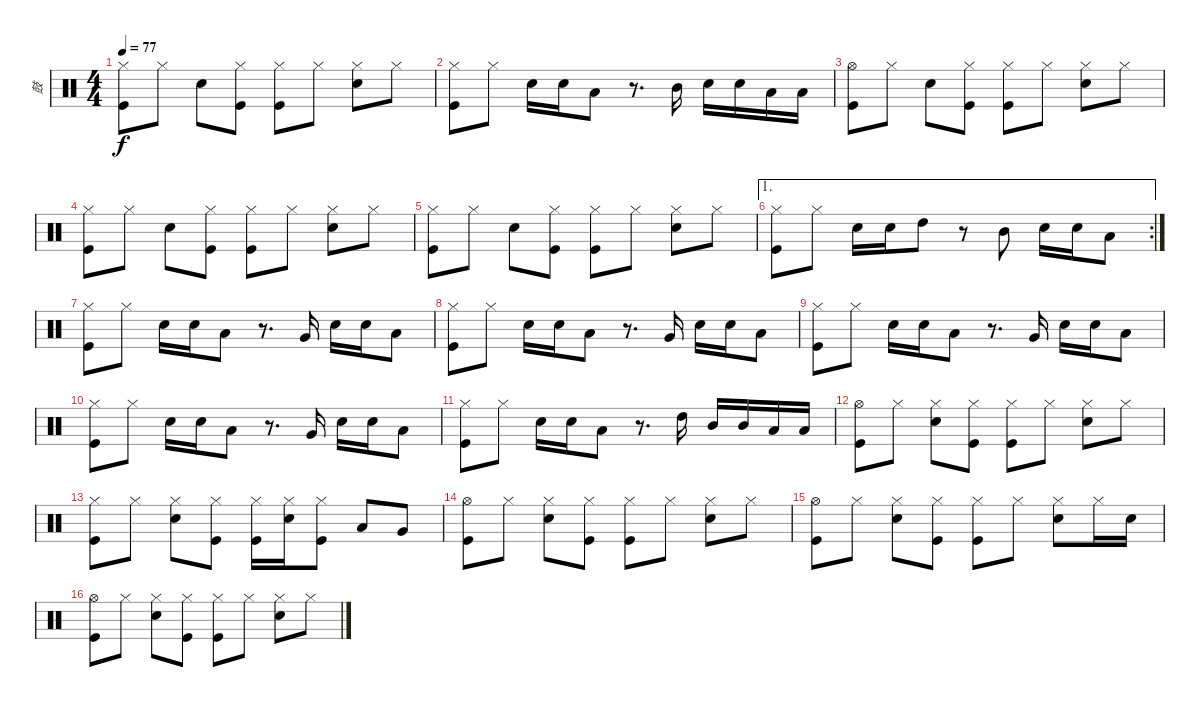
\track ("鼓" "鼓") {instrument percussion}
\staff {score}
\articulation defaults
\ts (4 4)
\tempo 77
\clef neutral
\ks c
("Kick (hit)" "Hi-Hat (closed)").8{dy f} "Hi-Hat (closed)".8 "Snare (hit) 2".8 ("Hi-Hat (closed)" "Kick (hit)").8 ("Hi-Hat (closed)" "Kick (hit)").8 "Hi-Hat (closed)".8 ("Hi-Hat (closed)" "Snare (hit) 2").8 "Hi-Hat (closed)".8 |
("Kick (hit)" "Hi-Hat (closed)").8 "Hi-Hat (closed)".8 "Snare (hit) 2".16 "Snare (hit) 2".16 "Low Tom (hit)".8 r.8{d} "Mid Tom (hit)".16 "Snare (hit) 2".16 "Snare (hit) 2".16 "Low Tom (hit)".16 "Low Tom (hit)".16 |
("Hi-Hat (open)" "Kick (hit)").8 "Hi-Hat (closed)".8 "Snare (hit) 2".8 ("Hi-Hat (closed)" "Kick (hit)").8 ("Hi-Hat (closed)" "Kick (hit)").8 "Hi-Hat (closed)".8 ("Hi-Hat (closed)" "Snare (hit) 2").8 "Hi-Hat (closed)".8 |
("Kick (hit)" "Hi-Hat (closed)").8 "Hi-Hat (closed)".8 "Snare (hit) 2".8 ("Hi-Hat (closed)" "Kick (hit)").8 ("Hi-Hat (closed)" "Kick (hit)").8 "Hi-Hat (closed)".8 ("Hi-Hat (closed)" "Snare (hit) 2").8 "Hi-Hat (closed)".8 |
("Kick (hit)" "Hi-Hat (closed)").8 "Hi-Hat (closed)".8 "Snare (hit) 2".8 ("Hi-Hat (closed)" "Kick (hit)").8 ("Hi-Hat (closed)" "Kick (hit)").8 "Hi-Hat (closed)".8 ("Hi-Hat (closed)" "Snare (hit) 2").8 "Hi-Hat (closed)".8 |
\ae 1
\rc 2
("Kick (hit)" "Hi-Hat (closed)").8 "Hi-Hat (closed)".8 "Snare (hit) 2".16 "Snare (hit) 2".16 "High Tom (hit)".8 r.8 "Mid Tom (hit)".8 "Snare (hit) 2".16 "Snare (hit) 2".16 "Low Tom (hit)".8 |
("Hi-Hat (closed)" "Kick (hit)").8 "Hi-Hat (closed)".8 "Snare (hit) 2".16 "Snare (hit) 2".16 "Low Tom (hit)".8 r.8{d} "Very Low Tom (hit)".16 "Snare (hit) 2".16 "Snare (hit) 2".16 "Low Tom (hit)".8 |
("Hi-Hat (closed)" "Kick (hit)").8 "Hi-Hat (closed)".8 "Snare (hit) 2".16 "Snare (hit) 2".16 "Low Tom (hit)".8 r.8{d} "Very Low Tom (hit)".16 "Snare (hit) 2".16 "Snare (hit) 2".16 "Low Tom (hit)".8 |
("Hi-Hat (closed)" "Kick (hit)").8 "Hi-Hat (closed)".8 "Snare (hit) 2".16 "Snare (hit) 2".16 "Low Tom (hit)".8 r.8{d} "Very Low Tom (hit)".16 "Snare (hit) 2".16 "Snare (hit) 2".16 "Low Tom (hit)".8 |
("Hi-Hat (closed)" "Kick (hit)").8 "Hi-Hat (closed)".8 "Snare (hit) 2".16 "Snare (hit) 2".16 "Low Tom (hit)".8 r.8{d} "Very Low Tom (hit)".16 "Snare (hit) 2".16 "Snare (hit) 2".16 "Low Tom (hit)".8 |
("Hi-Hat (closed)" "Kick (hit)").8 "Hi-Hat (closed)".8 "Snare (hit) 2".16 "Snare (hit) 2".16 "Low Tom (hit)".8 r.8{d} "High Tom (hit)".16 "Mid Tom (hit)".16 "Mid Tom (hit)".16 "Low Tom (hit)".16 "Low Tom (hit)".16 |
("Hi-Hat (open)" "Kick (hit)").8 "Hi-Hat (closed)".8 ("Hi-Hat (closed)" "Snare (hit) 2").8 ("Hi-Hat (closed)" "Kick (hit)").8 ("Hi-Hat (closed)" "Kick (hit)").8 "Hi-Hat (closed)".8 ("Hi-Hat (closed)" "Snare (hit) 2").8 "Hi-Hat (closed)".8 |
("Hi-Hat (closed)" "Kick (hit)").8 "Hi-Hat (closed)".8 ("Hi-Hat (closed)" "Snare (hit) 2").8 ("Hi-Hat (closed)" "Kick (hit)").8 ("Hi-Hat (closed)" "Kick (hit)").16 ("Hi-Hat (closed)" "Snare (hit) 2").16 ("Hi-Hat (closed)" "Kick (hit)").8 "Low Tom (hit)".8 "Very Low Tom (hit)".8 |
("Hi-Hat (open)" "Kick (hit)").8 "Hi-Hat (closed)".8 ("Hi-Hat (closed)" "Snare (hit) 2").8 ("Hi-Hat (closed)" "Kick (hit)").8 ("Hi-Hat (closed)" "Kick (hit)").8 "Hi-Hat (closed)".8 ("Hi-Hat (closed)" "Snare (hit) 2").8 "Hi-Hat (closed)".8 |
("Hi-Hat (open)" "Kick (hit)").8 "Hi-Hat (closed)".8 ("Hi-Hat (closed)" "Snare (hit) 2").8 ("Hi-Hat (closed)" "Kick (hit)").8 ("Hi-Hat (closed)" "Kick (hit)").8 "Hi-Hat (closed)".8 ("Hi-Hat (closed)" "Snare (hit) 2").8 "Hi-Hat (closed)".16 "Snare (hit) 2".16 |
("Hi-Hat (open)" "Kick (hit)").8 "Hi-Hat (closed)".8 ("Hi-Hat (closed)" "Snare (hit) 2").8 ("Hi-Hat (closed)" "Kick (hit)").8 ("Hi-Hat (closed)" "Kick (hit)").8 "Hi-Hat (closed)".8 ("Hi-Hat (closed)" "Snare (hit) 2").8 "Hi-Hat (closed)".8
